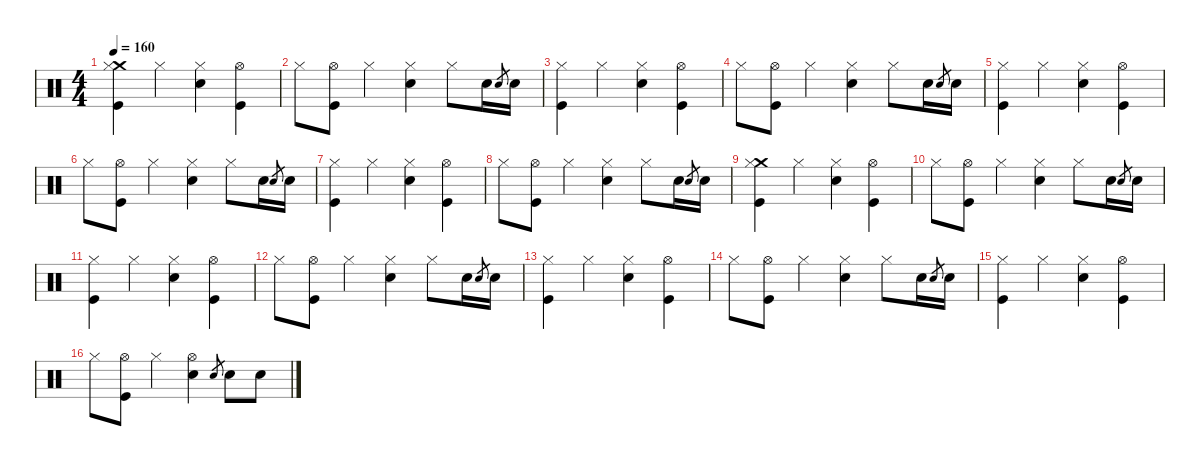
\defaultSystemsLayout 4
\hideDynamics
\bracketExtendMode nobrackets
\singleTrackTrackNamePolicy hidden
\multiTrackTrackNamePolicy hidden
\firstSystemTrackNameMode fullname
\firstSystemTrackNameOrientation horizontal
\otherSystemsTrackNameOrientation horizontal
\track ("Drums" "drm.") {instrument percussion}
\staff {score}
\articulation defaults
\ts (4 4)
\tempo 160
\clef neutral
\ks aminor
("Crash medium (hit)" "Hi-Hat (closed)" "Kick (hit)").4{dy f beam Down} "Hi-Hat (closed)".4{beam Down} ("Hi-Hat (closed)" "Snare (hit) 2").4{beam Down} ("Hi-Hat (open)" "Kick (hit)").4{beam Down} |
"Hi-Hat (closed)".8{beam Down} ("Hi-Hat (open)" "Kick (hit)").8{beam Down} "Hi-Hat (closed)".4{beam Down} ("Hi-Hat (closed)" "Snare (hit) 2").4{beam Down} "Hi-Hat (closed)".8{beam Down} "Snare (hit) 2".16{dy p beam Down} "Electric Snare (hit)".8{gr beam Up} "Snare (hit) 2".16{beam Down} |
("Hi-Hat (closed)" "Kick (hit)").4{dy f beam Down} "Hi-Hat (closed)".4{beam Down} ("Hi-Hat (closed)" "Snare (hit) 2").4{beam Down} ("Hi-Hat (open)" "Kick (hit)").4{beam Down} |
"Hi-Hat (closed)".8{beam Down} ("Hi-Hat (open)" "Kick (hit)").8{beam Down} "Hi-Hat (closed)".4{beam Down} ("Hi-Hat (closed)" "Snare (hit) 2").4{beam Down} "Hi-Hat (closed)".8{beam Down} "Snare (hit) 2".16{dy p beam Down} "Electric Snare (hit)".8{gr beam Up} "Snare (hit) 2".16{beam Down} |
("Hi-Hat (closed)" "Kick (hit)").4{dy f beam Down} "Hi-Hat (closed)".4{beam Down} ("Hi-Hat (closed)" "Snare (hit) 2").4{beam Down} ("Hi-Hat (open)" "Kick (hit)").4{beam Down} |
"Hi-Hat (closed)".8{beam Down} ("Hi-Hat (open)" "Kick (hit)").8{beam Down} "Hi-Hat (closed)".4{beam Down} ("Hi-Hat (closed)" "Snare (hit) 2").4{beam Down} "Hi-Hat (closed)".8{beam Down} "Snare (hit) 2".16{dy p beam Down} "Electric Snare (hit)".8{gr beam Up} "Snare (hit) 2".16{beam Down} |
("Hi-Hat (closed)" "Kick (hit)").4{dy f beam Down} "Hi-Hat (closed)".4{beam Down} ("Hi-Hat (closed)" "Snare (hit) 2").4{beam Down} ("Hi-Hat (open)" "Kick (hit)").4{beam Down} |
"Hi-Hat (closed)".8{beam Down} ("Hi-Hat (open)" "Kick (hit)").8{beam Down} "Hi-Hat (closed)".4{beam Down} ("Hi-Hat (closed)" "Snare (hit) 2").4{beam Down} "Hi-Hat (closed)".8{beam Down} "Snare (hit) 2".16{dy p beam Down} "Electric Snare (hit)".8{gr beam Up} "Snare (hit) 2".16{beam Down} |
("Crash medium (hit)" "Hi-Hat (closed)" "Kick (hit)").4{dy f beam Down} "Hi-Hat (closed)".4{beam Down} ("Hi-Hat (closed)" "Snare (hit) 2").4{beam Down} ("Hi-Hat (open)" "Kick (hit)").4{beam Down} |
"Hi-Hat (closed)".8{beam Down} ("Hi-Hat (open)" "Kick (hit)").8{beam Down} "Hi-Hat (closed)".4{beam Down} ("Hi-Hat (closed)" "Snare (hit) 2").4{beam Down} "Hi-Hat (closed)".8{beam Down} "Snare (hit) 2".16{dy p beam Down} "Electric Snare (hit)".8{gr beam Up} "Snare (hit) 2".16{beam Down} |
("Hi-Hat (closed)" "Kick (hit)").4{dy f beam Down} "Hi-Hat (closed)".4{beam Down} ("Hi-Hat (closed)" "Snare (hit) 2").4{beam Down} ("Hi-Hat (open)" "Kick (hit)").4{beam Down} |
"Hi-Hat (closed)".8{beam Down} ("Hi-Hat (open)" "Kick (hit)").8{beam Down} "Hi-Hat (closed)".4{beam Down} ("Hi-Hat (closed)" "Snare (hit) 2").4{beam Down} "Hi-Hat (closed)".8{beam Down} "Snare (hit) 2".16{dy p beam Down} "Electric Snare (hit)".8{gr beam Up} "Snare (hit) 2".16{beam Down} |
("Hi-Hat (closed)" "Kick (hit)").4{dy f beam Down} "Hi-Hat (closed)".4{beam Down} ("Hi-Hat (closed)" "Snare (hit) 2").4{beam Down} ("Hi-Hat (open)" "Kick (hit)").4{beam Down} |
"Hi-Hat (closed)".8{beam Down} ("Hi-Hat (open)" "Kick (hit)").8{beam Down} "Hi-Hat (closed)".4{beam Down} ("Hi-Hat (closed)" "Snare (hit) 2").4{beam Down} "Hi-Hat (closed)".8{beam Down} "Snare (hit) 2".16{dy p beam Down} "Electric Snare (hit)".8{gr beam Up} "Snare (hit) 2".16{beam Down} |
("Hi-Hat (closed)" "Kick (hit)").4{dy f beam Down} "Hi-Hat (closed)".4{beam Down} ("Hi-Hat (closed)" "Snare (hit) 2").4{beam Down} ("Hi-Hat (open)" "Kick (hit)").4{beam Down} |
"Hi-Hat (closed)".8{beam Down} ("Hi-Hat (open)" "Kick (hit)").8{beam Down} "Hi-Hat (closed)".4{beam Down} ("Hi-Hat (open)" "Snare (hit) 2").4{beam Down} "Electric Snare (hit)".8{gr dy mf beam Up} "Snare (hit) 2".8{dy f beam Down} "Snare (hit) 2".8{beam Down}
